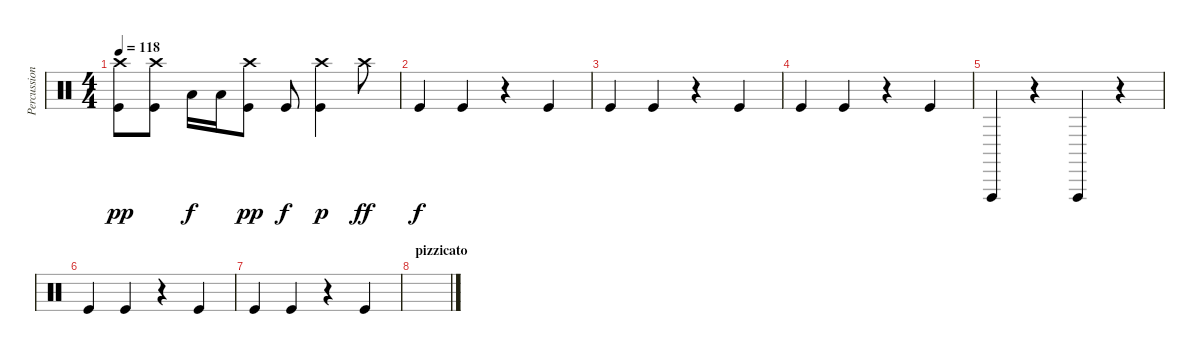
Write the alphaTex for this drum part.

\track ("Percussion" "Percussion") {instrument percussion}
\staff {score}
\articulation defaults
\ts (4 4)
\tempo 118
\clef neutral
\ks c
("Kick (hit)" "Crash high (hit)").8{dy pp} ("Kick (hit)" "Crash high (hit)").8 "Low Tom (hit)".16{dy f} "Low Tom (hit)".16 ("Kick (hit)" "Crash high (hit)").8{dy pp} "Kick (hit)".8{dy f} ("Kick (hit)" "Crash high (hit)").4{dy p} "Crash high (hit)".8{dy ff} |
"Kick (hit)".4{dy f} "Kick (hit)".4 r.4 "Kick (hit)".4 |
"Kick (hit)".4 "Kick (hit)".4 r.4 "Kick (hit)".4 |
"Kick (hit)".4 "Kick (hit)".4 r.4 "Kick (hit)".4 |
"Vibraslap (hit)".4 r.4 "Vibraslap (hit)".4 r.4 |
"Kick (hit)".4 "Kick (hit)".4 r.4 "Kick (hit)".4 |
"Kick (hit)".4 "Kick (hit)".4 r.4 "Kick (hit)".4 |
\section ("" "pizzicato")
